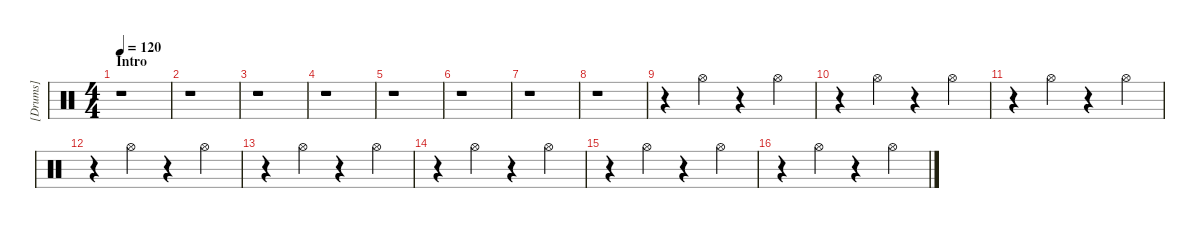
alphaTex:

\hideDynamics
\bracketExtendMode groupsimilarinstruments
\firstSystemTrackNameMode fullname
\otherSystemsTrackNameMode fullname
\otherSystemsTrackNameOrientation horizontal
\track ("[Drums]" "Drums") {instrument percussion}
\staff {score}
\articulation defaults
\ts (4 4)
\beaming (8 2 2 2 2)
\section ("" "Intro")
\tempo 120
\clef neutral
\scale
0.505495
\ks c
r.1{dy ff} |
\scale
0.247253 r.1 |
\scale
0.247253 r.1 |
\scale
0.333333 r.1 |
\scale
0.333333 r.1 |
\scale
0.333333 r.1 |
\scale
0.3 r.1 |
\scale
0.333333 r.1 |
r.4 "Hi-Hat (open)".4 r.4 "Hi-Hat (open)".4 |
r.4 "Hi-Hat (open)".4 r.4 "Hi-Hat (open)".4 |
r.4 "Hi-Hat (open)".4 r.4 "Hi-Hat (open)".4 |
r.4 "Hi-Hat (open)".4 r.4 "Hi-Hat (open)".4 |
r.4 "Hi-Hat (open)".4 r.4 "Hi-Hat (open)".4 |
r.4 "Hi-Hat (open)".4 r.4 "Hi-Hat (open)".4 |
r.4 "Hi-Hat (open)".4 r.4 "Hi-Hat (open)".4 |
r.4 "Hi-Hat (open)".4 r.4 "Hi-Hat (open)".4
